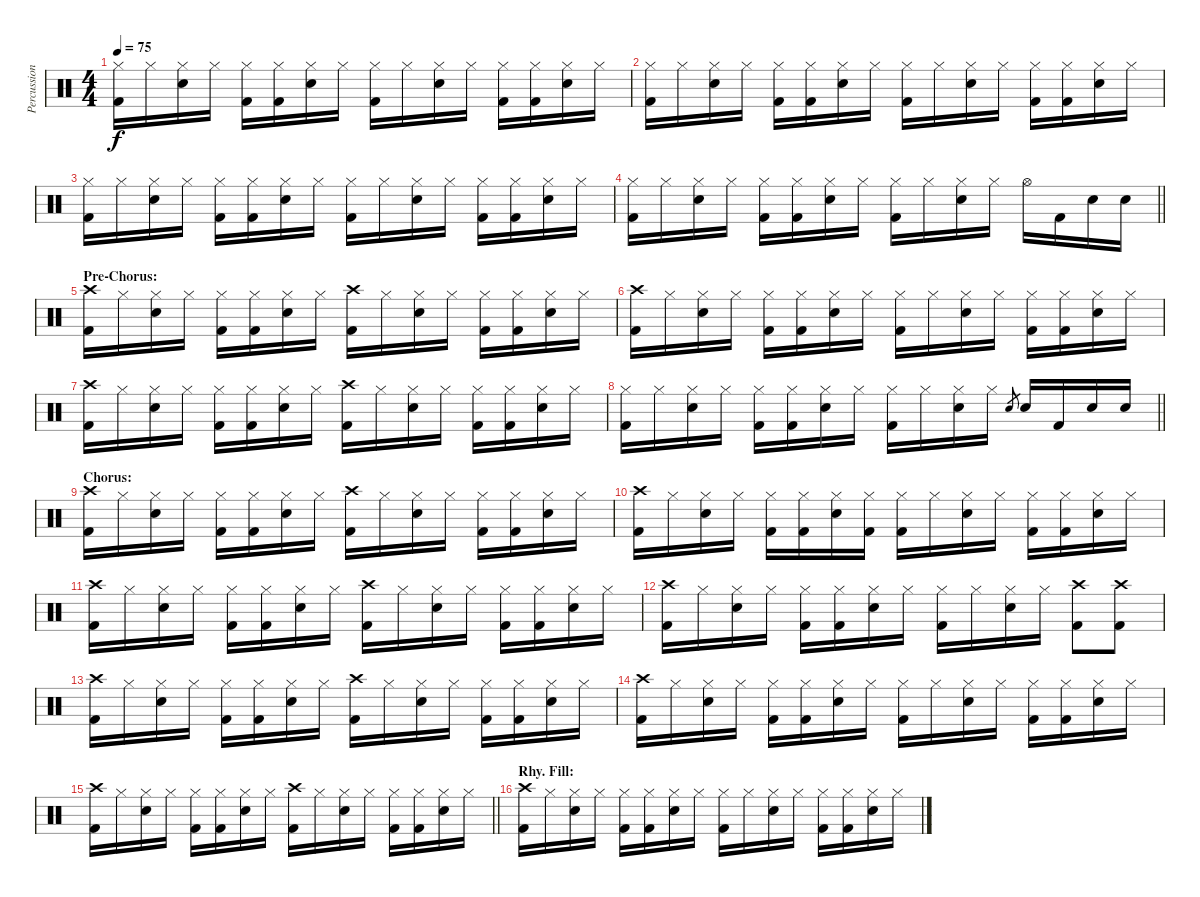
\track ("Percussion" "Percussion") {instrument percussion}
\staff {score}
\articulation defaults
\ts (4 4)
\tempo 75
\clef neutral
\ks c
("Hi-Hat (closed)" "Kick (hit) 2").16{dy f} "Hi-Hat (closed)".16 ("Hi-Hat (closed)" "Electric Snare (hit)").16 "Hi-Hat (closed)".16 ("Hi-Hat (closed)" "Kick (hit) 2").16 ("Hi-Hat (closed)" "Kick (hit) 2").16 ("Hi-Hat (closed)" "Electric Snare (hit)").16 "Hi-Hat (closed)".16 ("Hi-Hat (closed)" "Kick (hit) 2").16 "Hi-Hat (closed)".16 ("Hi-Hat (closed)" "Electric Snare (hit)").16 "Hi-Hat (closed)".16 ("Hi-Hat (closed)" "Kick (hit) 2").16 ("Hi-Hat (closed)" "Kick (hit) 2").16 ("Hi-Hat (closed)" "Electric Snare (hit)").16 "Hi-Hat (closed)".16 |
("Hi-Hat (closed)" "Kick (hit) 2").16 "Hi-Hat (closed)".16 ("Hi-Hat (closed)" "Electric Snare (hit)").16 "Hi-Hat (closed)".16 ("Hi-Hat (closed)" "Kick (hit) 2").16 ("Hi-Hat (closed)" "Kick (hit) 2").16 ("Hi-Hat (closed)" "Electric Snare (hit)").16 "Hi-Hat (closed)".16 ("Hi-Hat (closed)" "Kick (hit) 2").16 "Hi-Hat (closed)".16 ("Hi-Hat (closed)" "Electric Snare (hit)").16 "Hi-Hat (closed)".16 ("Hi-Hat (closed)" "Kick (hit) 2").16 ("Hi-Hat (closed)" "Kick (hit) 2").16 ("Hi-Hat (closed)" "Electric Snare (hit)").16 "Hi-Hat (closed)".16 |
("Hi-Hat (closed)" "Kick (hit) 2").16 "Hi-Hat (closed)".16 ("Hi-Hat (closed)" "Electric Snare (hit)").16 "Hi-Hat (closed)".16 ("Hi-Hat (closed)" "Kick (hit) 2").16 ("Hi-Hat (closed)" "Kick (hit) 2").16 ("Hi-Hat (closed)" "Electric Snare (hit)").16 "Hi-Hat (closed)".16 ("Hi-Hat (closed)" "Kick (hit) 2").16 "Hi-Hat (closed)".16 ("Hi-Hat (closed)" "Electric Snare (hit)").16 "Hi-Hat (closed)".16 ("Hi-Hat (closed)" "Kick (hit) 2").16 ("Hi-Hat (closed)" "Kick (hit) 2").16 ("Hi-Hat (closed)" "Electric Snare (hit)").16 "Hi-Hat (closed)".16 |
\barLineRight lightlight
("Hi-Hat (closed)" "Kick (hit) 2").16 "Hi-Hat (closed)".16 ("Hi-Hat (closed)" "Electric Snare (hit)").16 "Hi-Hat (closed)".16 ("Hi-Hat (closed)" "Kick (hit) 2").16 ("Hi-Hat (closed)" "Kick (hit) 2").16 ("Hi-Hat (closed)" "Electric Snare (hit)").16 "Hi-Hat (closed)".16 ("Hi-Hat (closed)" "Kick (hit) 2").16 "Hi-Hat (closed)".16 ("Hi-Hat (closed)" "Electric Snare (hit)").16 "Hi-Hat (closed)".16 "Hi-Hat (open)".16 "Kick (hit) 2".16 "Electric Snare (hit)".16 "Electric Snare (hit)".16 |
\section ("" "Pre-Chorus:")
("Crash high (hit)" "Kick (hit) 2").16 "Hi-Hat (closed)".16 ("Hi-Hat (closed)" "Electric Snare (hit)").16 "Hi-Hat (closed)".16 ("Hi-Hat (closed)" "Kick (hit) 2").16 ("Hi-Hat (closed)" "Kick (hit) 2").16 ("Hi-Hat (closed)" "Electric Snare (hit)").16 "Hi-Hat (closed)".16 ("Crash high (hit)" "Kick (hit) 2").16 "Hi-Hat (closed)".16 ("Hi-Hat (closed)" "Electric Snare (hit)").16 "Hi-Hat (closed)".16 ("Hi-Hat (closed)" "Kick (hit) 2").16 ("Hi-Hat (closed)" "Kick (hit) 2").16 ("Hi-Hat (closed)" "Electric Snare (hit)").16 "Hi-Hat (closed)".16 |
("Crash high (hit)" "Kick (hit) 2").16 "Hi-Hat (closed)".16 ("Hi-Hat (closed)" "Electric Snare (hit)").16 "Hi-Hat (closed)".16 ("Hi-Hat (closed)" "Kick (hit) 2").16 ("Hi-Hat (closed)" "Kick (hit) 2").16 ("Hi-Hat (closed)" "Electric Snare (hit)").16 "Hi-Hat (closed)".16 ("Hi-Hat (closed)" "Kick (hit) 2").16 "Hi-Hat (closed)".16 ("Hi-Hat (closed)" "Electric Snare (hit)").16 "Hi-Hat (closed)".16 ("Hi-Hat (closed)" "Kick (hit) 2").16 ("Hi-Hat (closed)" "Kick (hit) 2").16 ("Hi-Hat (closed)" "Electric Snare (hit)").16 "Hi-Hat (closed)".16 |
("Crash high (hit)" "Kick (hit) 2").16 "Hi-Hat (closed)".16 ("Hi-Hat (closed)" "Electric Snare (hit)").16 "Hi-Hat (closed)".16 ("Hi-Hat (closed)" "Kick (hit) 2").16 ("Hi-Hat (closed)" "Kick (hit) 2").16 ("Hi-Hat (closed)" "Electric Snare (hit)").16 "Hi-Hat (closed)".16 ("Crash high (hit)" "Kick (hit) 2").16 "Hi-Hat (closed)".16 ("Hi-Hat (closed)" "Electric Snare (hit)").16 "Hi-Hat (closed)".16 ("Hi-Hat (closed)" "Kick (hit) 2").16 ("Hi-Hat (closed)" "Kick (hit) 2").16 ("Hi-Hat (closed)" "Electric Snare (hit)").16 "Hi-Hat (closed)".16 |
\barLineRight lightlight
("Hi-Hat (closed)" "Kick (hit) 2").16 "Hi-Hat (closed)".16 ("Hi-Hat (closed)" "Electric Snare (hit)").16 "Hi-Hat (closed)".16 ("Hi-Hat (closed)" "Kick (hit) 2").16 ("Hi-Hat (closed)" "Kick (hit) 2").16 ("Hi-Hat (closed)" "Electric Snare (hit)").16 "Hi-Hat (closed)".16 ("Hi-Hat (closed)" "Kick (hit) 2").16 "Hi-Hat (closed)".16 ("Hi-Hat (closed)" "Electric Snare (hit)").16 "Hi-Hat (closed)".16 "Electric Snare (hit)".8{gr} "Electric Snare (hit)".16 "Kick (hit) 2".16 "Electric Snare (hit)".16 "Electric Snare (hit)".16 |
\section ("" "Chorus:")
("Crash high (hit)" "Kick (hit) 2").16 "Hi-Hat (closed)".16 ("Hi-Hat (closed)" "Electric Snare (hit)").16 "Hi-Hat (closed)".16 ("Hi-Hat (closed)" "Kick (hit) 2").16 ("Hi-Hat (closed)" "Kick (hit) 2").16 ("Hi-Hat (closed)" "Electric Snare (hit)").16 "Hi-Hat (closed)".16 ("Crash high (hit)" "Kick (hit) 2").16 "Hi-Hat (closed)".16 ("Hi-Hat (closed)" "Electric Snare (hit)").16 "Hi-Hat (closed)".16 ("Hi-Hat (closed)" "Kick (hit) 2").16 ("Hi-Hat (closed)" "Kick (hit) 2").16 ("Hi-Hat (closed)" "Electric Snare (hit)").16 "Hi-Hat (closed)".16 |
("Crash high (hit)" "Kick (hit) 2").16 "Hi-Hat (closed)".16 ("Hi-Hat (closed)" "Electric Snare (hit)").16 "Hi-Hat (closed)".16 ("Hi-Hat (closed)" "Kick (hit) 2").16 ("Hi-Hat (closed)" "Kick (hit) 2").16 ("Hi-Hat (closed)" "Electric Snare (hit)").16 ("Hi-Hat (closed)" "Kick (hit) 2").16 ("Hi-Hat (closed)" "Kick (hit) 2").16 "Hi-Hat (closed)".16 ("Hi-Hat (closed)" "Electric Snare (hit)").16 "Hi-Hat (closed)".16 ("Hi-Hat (closed)" "Kick (hit) 2").16 ("Hi-Hat (closed)" "Kick (hit) 2").16 ("Hi-Hat (closed)" "Electric Snare (hit)").16 "Hi-Hat (closed)".16 |
("Crash high (hit)" "Kick (hit) 2").16 "Hi-Hat (closed)".16 ("Hi-Hat (closed)" "Electric Snare (hit)").16 "Hi-Hat (closed)".16 ("Hi-Hat (closed)" "Kick (hit) 2").16 ("Hi-Hat (closed)" "Kick (hit) 2").16 ("Hi-Hat (closed)" "Electric Snare (hit)").16 "Hi-Hat (closed)".16 ("Crash high (hit)" "Kick (hit) 2").16 "Hi-Hat (closed)".16 ("Hi-Hat (closed)" "Electric Snare (hit)").16 "Hi-Hat (closed)".16 ("Hi-Hat (closed)" "Kick (hit) 2").16 ("Hi-Hat (closed)" "Kick (hit) 2").16 ("Hi-Hat (closed)" "Electric Snare (hit)").16 "Hi-Hat (closed)".16 |
("Crash high (hit)" "Kick (hit) 2").16 "Hi-Hat (closed)".16 ("Hi-Hat (closed)" "Electric Snare (hit)").16 "Hi-Hat (closed)".16 ("Hi-Hat (closed)" "Kick (hit) 2").16 ("Hi-Hat (closed)" "Kick (hit) 2").16 ("Hi-Hat (closed)" "Electric Snare (hit)").16 "Hi-Hat (closed)".16 ("Hi-Hat (closed)" "Kick (hit) 2").16 "Hi-Hat (closed)".16 ("Hi-Hat (closed)" "Electric Snare (hit)").16 "Hi-Hat (closed)".16 ("Crash high (hit)" "Kick (hit) 2").8 ("Crash high (hit)" "Kick (hit) 2").8 |
("Crash high (hit)" "Kick (hit) 2").16 "Hi-Hat (closed)".16 ("Hi-Hat (closed)" "Electric Snare (hit)").16 "Hi-Hat (closed)".16 ("Hi-Hat (closed)" "Kick (hit) 2").16 ("Hi-Hat (closed)" "Kick (hit) 2").16 ("Hi-Hat (closed)" "Electric Snare (hit)").16 "Hi-Hat (closed)".16 ("Crash high (hit)" "Kick (hit) 2").16 "Hi-Hat (closed)".16 ("Hi-Hat (closed)" "Electric Snare (hit)").16 "Hi-Hat (closed)".16 ("Hi-Hat (closed)" "Kick (hit) 2").16 ("Hi-Hat (closed)" "Kick (hit) 2").16 ("Hi-Hat (closed)" "Electric Snare (hit)").16 "Hi-Hat (closed)".16 |
("Crash high (hit)" "Kick (hit) 2").16 "Hi-Hat (closed)".16 ("Hi-Hat (closed)" "Electric Snare (hit)").16 "Hi-Hat (closed)".16 ("Hi-Hat (closed)" "Kick (hit) 2").16 ("Hi-Hat (closed)" "Kick (hit) 2").16 ("Hi-Hat (closed)" "Electric Snare (hit)").16 "Hi-Hat (closed)".16 ("Hi-Hat (closed)" "Kick (hit) 2").16 "Hi-Hat (closed)".16 ("Hi-Hat (closed)" "Electric Snare (hit)").16 "Hi-Hat (closed)".16 ("Hi-Hat (closed)" "Kick (hit) 2").16 ("Hi-Hat (closed)" "Kick (hit) 2").16 ("Hi-Hat (closed)" "Electric Snare (hit)").16 "Hi-Hat (closed)".16 |
\barLineRight lightlight
("Crash high (hit)" "Kick (hit) 2").16 "Hi-Hat (closed)".16 ("Hi-Hat (closed)" "Electric Snare (hit)").16 "Hi-Hat (closed)".16 ("Hi-Hat (closed)" "Kick (hit) 2").16 ("Hi-Hat (closed)" "Kick (hit) 2").16 ("Hi-Hat (closed)" "Electric Snare (hit)").16 "Hi-Hat (closed)".16 ("Crash high (hit)" "Kick (hit) 2").16 "Hi-Hat (closed)".16 ("Hi-Hat (closed)" "Electric Snare (hit)").16 "Hi-Hat (closed)".16 ("Hi-Hat (closed)" "Kick (hit) 2").16 ("Hi-Hat (closed)" "Kick (hit) 2").16 ("Hi-Hat (closed)" "Electric Snare (hit)").16 "Hi-Hat (closed)".16 |
\section ("" "Rhy. Fill:")
("Crash high (hit)" "Kick (hit) 2").16 "Hi-Hat (closed)".16 ("Hi-Hat (closed)" "Electric Snare (hit)").16 "Hi-Hat (closed)".16 ("Hi-Hat (closed)" "Kick (hit) 2").16 ("Hi-Hat (closed)" "Kick (hit) 2").16 ("Hi-Hat (closed)" "Electric Snare (hit)").16 "Hi-Hat (closed)".16 ("Hi-Hat (closed)" "Kick (hit) 2").16 "Hi-Hat (closed)".16 ("Hi-Hat (closed)" "Electric Snare (hit)").16 "Hi-Hat (closed)".16 ("Hi-Hat (closed)" "Kick (hit) 2").16 ("Hi-Hat (closed)" "Kick (hit) 2").16 ("Hi-Hat (closed)" "Electric Snare (hit)").16 "Hi-Hat (closed)".16
